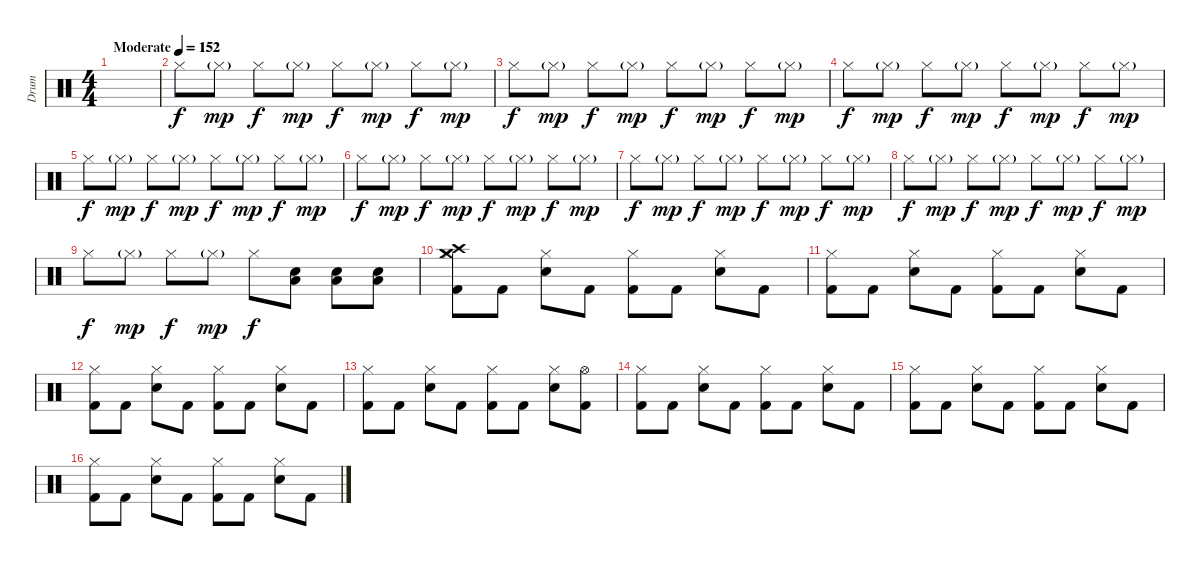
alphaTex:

\track ("Drum" "Drum") {instrument percussion}
\staff {score}
\articulation defaults
\ts (4 4)
\tempo (152 "Moderate")
\clef neutral
\ks c
|
\tempo (152)
"Hi-Hat (closed)".8{volume 13} "Hi-Hat (closed)"{g}.8{dy mp} "Hi-Hat (closed)".8{dy f} "Hi-Hat (closed)"{g}.8{dy mp} "Hi-Hat (closed)".8{dy f} "Hi-Hat (closed)"{g}.8{dy mp} "Hi-Hat (closed)".8{dy f} "Hi-Hat (closed)"{g}.8{dy mp} |
"Hi-Hat (closed)".8{dy f} "Hi-Hat (closed)"{g}.8{dy mp} "Hi-Hat (closed)".8{dy f} "Hi-Hat (closed)"{g}.8{dy mp} "Hi-Hat (closed)".8{dy f} "Hi-Hat (closed)"{g}.8{dy mp} "Hi-Hat (closed)".8{dy f} "Hi-Hat (closed)"{g}.8{dy mp} |
"Hi-Hat (closed)".8{dy f} "Hi-Hat (closed)"{g}.8{dy mp} "Hi-Hat (closed)".8{dy f} "Hi-Hat (closed)"{g}.8{dy mp} "Hi-Hat (closed)".8{dy f} "Hi-Hat (closed)"{g}.8{dy mp} "Hi-Hat (closed)".8{dy f} "Hi-Hat (closed)"{g}.8{dy mp} |
"Hi-Hat (closed)".8{dy f} "Hi-Hat (closed)"{g}.8{dy mp} "Hi-Hat (closed)".8{dy f} "Hi-Hat (closed)"{g}.8{dy mp} "Hi-Hat (closed)".8{dy f} "Hi-Hat (closed)"{g}.8{dy mp} "Hi-Hat (closed)".8{dy f} "Hi-Hat (closed)"{g}.8{dy mp} |
"Hi-Hat (closed)".8{dy f} "Hi-Hat (closed)"{g}.8{dy mp} "Hi-Hat (closed)".8{dy f} "Hi-Hat (closed)"{g}.8{dy mp} "Hi-Hat (closed)".8{dy f} "Hi-Hat (closed)"{g}.8{dy mp} "Hi-Hat (closed)".8{dy f} "Hi-Hat (closed)"{g}.8{dy mp} |
"Hi-Hat (closed)".8{dy f} "Hi-Hat (closed)"{g}.8{dy mp} "Hi-Hat (closed)".8{dy f} "Hi-Hat (closed)"{g}.8{dy mp} "Hi-Hat (closed)".8{dy f} "Hi-Hat (closed)"{g}.8{dy mp} "Hi-Hat (closed)".8{dy f} "Hi-Hat (closed)"{g}.8{dy mp} |
"Hi-Hat (closed)".8{dy f} "Hi-Hat (closed)"{g}.8{dy mp} "Hi-Hat (closed)".8{dy f} "Hi-Hat (closed)"{g}.8{dy mp} "Hi-Hat (closed)".8{dy f} "Hi-Hat (closed)"{g}.8{dy mp} "Hi-Hat (closed)".8{dy f} "Hi-Hat (closed)"{g}.8{dy mp} |
"Hi-Hat (closed)".8{dy f} "Hi-Hat (closed)"{g}.8{dy mp} "Hi-Hat (closed)".8{dy f} "Hi-Hat (closed)"{g}.8{dy mp} "Hi-Hat (closed)".8{dy f} ("Low Tom (hit)" "Electric Snare (hit)").8 ("Low Tom (hit)" "Electric Snare (hit)").8 ("Low Tom (hit)" "Electric Snare (hit)").8 |
("Crash high (hit)" "Crash medium (hit)" "Hi-Hat (closed)" "Kick (hit) 2").8 "Kick (hit) 2".8 ("Hi-Hat (closed)" "Electric Snare (hit)").8 "Kick (hit) 2".8 ("Hi-Hat (closed)" "Kick (hit) 2").8 "Kick (hit) 2".8 ("Hi-Hat (closed)" "Electric Snare (hit)").8 "Kick (hit) 2".8 |
("Hi-Hat (closed)" "Kick (hit) 2").8 "Kick (hit) 2".8 ("Hi-Hat (closed)" "Electric Snare (hit)").8 "Kick (hit) 2".8 ("Hi-Hat (closed)" "Kick (hit) 2").8 "Kick (hit) 2".8 ("Hi-Hat (closed)" "Electric Snare (hit)").8 "Kick (hit) 2".8 |
("Hi-Hat (closed)" "Kick (hit) 2").8 "Kick (hit) 2".8 ("Hi-Hat (closed)" "Electric Snare (hit)").8 "Kick (hit) 2".8 ("Hi-Hat (closed)" "Kick (hit) 2").8 "Kick (hit) 2".8 ("Hi-Hat (closed)" "Electric Snare (hit)").8 "Kick (hit) 2".8 |
("Hi-Hat (closed)" "Kick (hit) 2").8 "Kick (hit) 2".8 ("Hi-Hat (closed)" "Electric Snare (hit)").8 "Kick (hit) 2".8 ("Hi-Hat (closed)" "Kick (hit) 2").8 "Kick (hit) 2".8 ("Hi-Hat (closed)" "Electric Snare (hit)").8 ("Hi-Hat (open)" "Kick (hit) 2").8 |
("Hi-Hat (closed)" "Kick (hit) 2").8 "Kick (hit) 2".8 ("Hi-Hat (closed)" "Electric Snare (hit)").8 "Kick (hit) 2".8 ("Hi-Hat (closed)" "Kick (hit) 2").8 "Kick (hit) 2".8 ("Hi-Hat (closed)" "Electric Snare (hit)").8 "Kick (hit) 2".8 |
("Hi-Hat (closed)" "Kick (hit) 2").8 "Kick (hit) 2".8 ("Hi-Hat (closed)" "Electric Snare (hit)").8 "Kick (hit) 2".8 ("Hi-Hat (closed)" "Kick (hit) 2").8 "Kick (hit) 2".8 ("Hi-Hat (closed)" "Electric Snare (hit)").8 "Kick (hit) 2".8 |
("Hi-Hat (closed)" "Kick (hit) 2").8 "Kick (hit) 2".8 ("Hi-Hat (closed)" "Electric Snare (hit)").8 "Kick (hit) 2".8 ("Hi-Hat (closed)" "Kick (hit) 2").8 "Kick (hit) 2".8 ("Hi-Hat (closed)" "Electric Snare (hit)").8 "Kick (hit) 2".8
